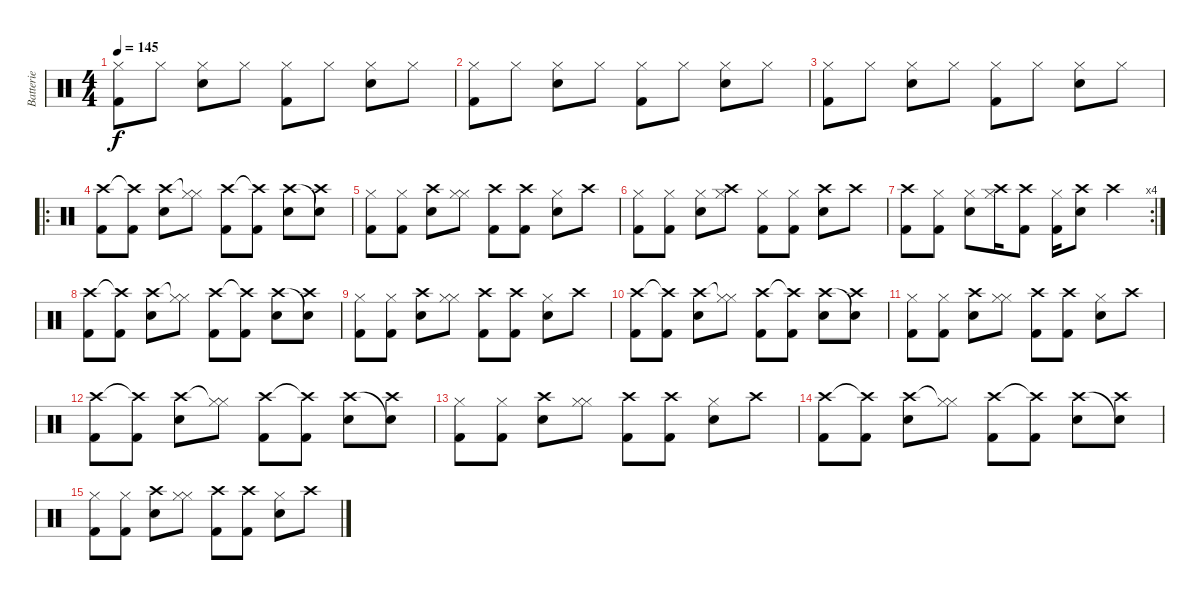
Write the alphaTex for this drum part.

\track ("Batterie" "Batterie") {instrument percussion}
\staff {score}
\articulation defaults
\ts (4 4)
\tempo 145
\clef neutral
\ks c
("Kick (hit) 2" "Hi-Hat (closed)").8{dy f} "Hi-Hat (closed)".8 ("Snare (hit) 2" "Hi-Hat (closed)").8 "Hi-Hat (closed)".8 ("Kick (hit) 2" "Hi-Hat (closed)").8 "Hi-Hat (closed)".8 ("Snare (hit) 2" "Hi-Hat (closed)").8 "Hi-Hat (closed)".8 |
("Kick (hit) 2" "Hi-Hat (closed)").8 "Hi-Hat (closed)".8 ("Snare (hit) 2" "Hi-Hat (closed)").8 "Hi-Hat (closed)".8 ("Kick (hit) 2" "Hi-Hat (closed)").8 "Hi-Hat (closed)".8 ("Snare (hit) 2" "Hi-Hat (closed)").8 "Hi-Hat (closed)".8 |
("Kick (hit) 2" "Hi-Hat (closed)").8 "Hi-Hat (closed)".8 ("Snare (hit) 2" "Hi-Hat (closed)").8 "Hi-Hat (closed)".8 ("Kick (hit) 2" "Hi-Hat (closed)").8 "Hi-Hat (closed)".8 ("Snare (hit) 2" "Hi-Hat (closed)").8 "Hi-Hat (closed)".8 |
\ro
("Kick (hit) 2" "Crash high (hit)").8 ("Kick (hit) 2" "Crash high (hit)"{t}).8 ("Snare (hit) 2" "Crash high (hit)").8 ("Hi-Hat (closed)" "Hi-Hat (closed)"{t}).8 ("Kick (hit) 2" "Crash high (hit)").8 ("Kick (hit) 2" "Crash high (hit)"{t}).8 ("Snare (hit) 2" "Crash high (hit)").8 ("Crash high (hit)" "Snare (hit)"{t}).8 |
("Kick (hit) 2" "Hi-Hat (closed)").8 ("Kick (hit) 2" "Hi-Hat (closed)").8 ("Snare (hit) 2" "Crash high (hit)").8 ("Hi-Hat (closed)" "Hi-Hat (closed)").8 ("Kick (hit) 2" "Crash high (hit)").8 ("Kick (hit) 2" "Crash high (hit)").8 ("Snare (hit) 2" "Hi-Hat (closed)").8 "Crash high (hit)".8 |
("Kick (hit) 2" "Hi-Hat (closed)").8 ("Kick (hit) 2" "Hi-Hat (closed)").8 ("Snare (hit) 2" "Hi-Hat (closed)").8 ("Hi-Hat (closed)" "Crash high (hit)").8 ("Kick (hit) 2" "Hi-Hat (closed)").8 ("Kick (hit) 2" "Hi-Hat (closed)").8 ("Snare (hit) 2" "Crash high (hit)").8 "Crash high (hit)".8 |
\rc 4
("Kick (hit) 2" "Crash high (hit)").8 ("Kick (hit) 2" "Hi-Hat (closed)").8 ("Snare (hit) 2" "Hi-Hat (closed)").8 ("Hi-Hat (closed)" "Crash high (hit)").16 ("Kick (hit) 2" "Crash high (hit)").8 ("Kick (hit) 2" "Hi-Hat (closed)").16 ("Snare (hit) 2" "Crash high (hit)").8 "Crash high (hit)".4 |
("Kick (hit) 2" "Crash high (hit)").8 ("Kick (hit) 2" "Crash high (hit)"{t}).8 ("Snare (hit) 2" "Crash high (hit)").8 ("Hi-Hat (closed)" "Hi-Hat (closed)"{t}).8 ("Kick (hit) 2" "Crash high (hit)").8 ("Kick (hit) 2" "Crash high (hit)"{t}).8 ("Snare (hit) 2" "Crash high (hit)").8 ("Crash high (hit)" "Snare (hit)"{t}).8 |
("Kick (hit) 2" "Hi-Hat (closed)").8 ("Kick (hit) 2" "Hi-Hat (closed)").8 ("Snare (hit) 2" "Crash high (hit)").8 ("Hi-Hat (closed)" "Hi-Hat (closed)").8 ("Kick (hit) 2" "Crash high (hit)").8 ("Kick (hit) 2" "Crash high (hit)").8 ("Snare (hit) 2" "Hi-Hat (closed)").8 "Crash high (hit)".8 |
("Kick (hit) 2" "Crash high (hit)").8 ("Kick (hit) 2" "Crash high (hit)"{t}).8 ("Snare (hit) 2" "Crash high (hit)").8 ("Hi-Hat (closed)" "Hi-Hat (closed)"{t}).8 ("Kick (hit) 2" "Crash high (hit)").8 ("Kick (hit) 2" "Crash high (hit)"{t}).8 ("Snare (hit) 2" "Crash high (hit)").8 ("Crash high (hit)" "Snare (hit)"{t}).8 |
("Kick (hit) 2" "Hi-Hat (closed)").8 ("Kick (hit) 2" "Hi-Hat (closed)").8 ("Snare (hit) 2" "Crash high (hit)").8 ("Hi-Hat (closed)" "Hi-Hat (closed)").8 ("Kick (hit) 2" "Crash high (hit)").8 ("Kick (hit) 2" "Crash high (hit)").8 ("Snare (hit) 2" "Hi-Hat (closed)").8 "Crash high (hit)".8 |
("Kick (hit) 2" "Crash high (hit)").8 ("Kick (hit) 2" "Crash high (hit)"{t}).8 ("Snare (hit) 2" "Crash high (hit)").8 ("Hi-Hat (closed)" "Hi-Hat (closed)"{t}).8 ("Kick (hit) 2" "Crash high (hit)").8 ("Kick (hit) 2" "Crash high (hit)"{t}).8 ("Snare (hit) 2" "Crash high (hit)").8 ("Crash high (hit)" "Snare (hit)"{t}).8 |
("Kick (hit) 2" "Hi-Hat (closed)").8 ("Kick (hit) 2" "Hi-Hat (closed)").8 ("Snare (hit) 2" "Crash high (hit)").8 ("Hi-Hat (closed)" "Hi-Hat (closed)").8 ("Kick (hit) 2" "Crash high (hit)").8 ("Kick (hit) 2" "Crash high (hit)").8 ("Snare (hit) 2" "Hi-Hat (closed)").8 "Crash high (hit)".8 |
("Kick (hit) 2" "Crash high (hit)").8 ("Kick (hit) 2" "Crash high (hit)"{t}).8 ("Snare (hit) 2" "Crash high (hit)").8 ("Hi-Hat (closed)" "Hi-Hat (closed)"{t}).8 ("Kick (hit) 2" "Crash high (hit)").8 ("Kick (hit) 2" "Crash high (hit)"{t}).8 ("Snare (hit) 2" "Crash high (hit)").8 ("Crash high (hit)" "Snare (hit)"{t}).8 |
("Kick (hit) 2" "Hi-Hat (closed)").8 ("Kick (hit) 2" "Hi-Hat (closed)").8 ("Snare (hit) 2" "Crash high (hit)").8 ("Hi-Hat (closed)" "Hi-Hat (closed)").8 ("Kick (hit) 2" "Crash high (hit)").8 ("Kick (hit) 2" "Crash high (hit)").8 ("Snare (hit) 2" "Hi-Hat (closed)").8 "Crash high (hit)".8
